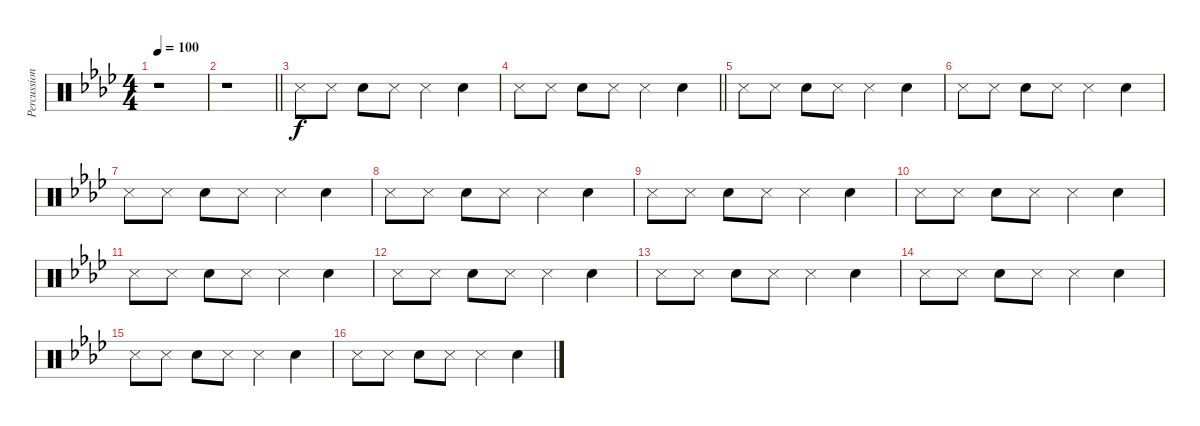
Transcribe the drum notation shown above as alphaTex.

\track ("Percussions" "Percussion") {instrument percussion}
\staff {score}
\articulation defaults
\ts (4 4)
\tempo 100
\clef neutral
\ks ab
r.1{dy f} |
\barLineRight lightlight
r.1 |
"Snare (side stick) 3".8 "Snare (side stick) 3".8 "Hand Clap (hit)".8 "Snare (side stick) 3".8 "Snare (side stick) 3".4 "Hand Clap (hit)".4 |
\barLineRight lightlight "Snare (side stick) 3".8 "Snare (side stick) 3".8 "Hand Clap (hit)".8 "Snare (side stick) 3".8 "Snare (side stick) 3".4 "Hand Clap (hit)".4
|
"Snare (side stick) 3".8 "Snare (side stick) 3".8 "Hand Clap (hit)".8 "Snare (side stick) 3".8 "Snare (side stick) 3".4 "Hand Clap (hit)".4 |
"Snare (side stick) 3".8 "Snare (side stick) 3".8 "Hand Clap (hit)".8 "Snare (side stick) 3".8 "Snare (side stick) 3".4 "Hand Clap (hit)".4 |
"Snare (side stick) 3".8 "Snare (side stick) 3".8 "Hand Clap (hit)".8 "Snare (side stick) 3".8 "Snare (side stick) 3".4 "Hand Clap (hit)".4 |
"Snare (side stick) 3".8 "Snare (side stick) 3".8 "Hand Clap (hit)".8 "Snare (side stick) 3".8 "Snare (side stick) 3".4 "Hand Clap (hit)".4 |
"Snare (side stick) 3".8 "Snare (side stick) 3".8 "Hand Clap (hit)".8 "Snare (side stick) 3".8 "Snare (side stick) 3".4 "Hand Clap (hit)".4 |
"Snare (side stick) 3".8 "Snare (side stick) 3".8 "Hand Clap (hit)".8 "Snare (side stick) 3".8 "Snare (side stick) 3".4 "Hand Clap (hit)".4 |
"Snare (side stick) 3".8 "Snare (side stick) 3".8 "Hand Clap (hit)".8 "Snare (side stick) 3".8 "Snare (side stick) 3".4 "Hand Clap (hit)".4 |
"Snare (side stick) 3".8 "Snare (side stick) 3".8 "Hand Clap (hit)".8 "Snare (side stick) 3".8 "Snare (side stick) 3".4 "Hand Clap (hit)".4 |
"Snare (side stick) 3".8 "Snare (side stick) 3".8 "Hand Clap (hit)".8 "Snare (side stick) 3".8 "Snare (side stick) 3".4 "Hand Clap (hit)".4 |
"Snare (side stick) 3".8 "Snare (side stick) 3".8 "Hand Clap (hit)".8 "Snare (side stick) 3".8 "Snare (side stick) 3".4 "Hand Clap (hit)".4 |
"Snare (side stick) 3".8 "Snare (side stick) 3".8 "Hand Clap (hit)".8 "Snare (side stick) 3".8 "Snare (side stick) 3".4 "Hand Clap (hit)".4 |
"Snare (side stick) 3".8 "Snare (side stick) 3".8 "Hand Clap (hit)".8 "Snare (side stick) 3".8 "Snare (side stick) 3".4 "Hand Clap (hit)".4
